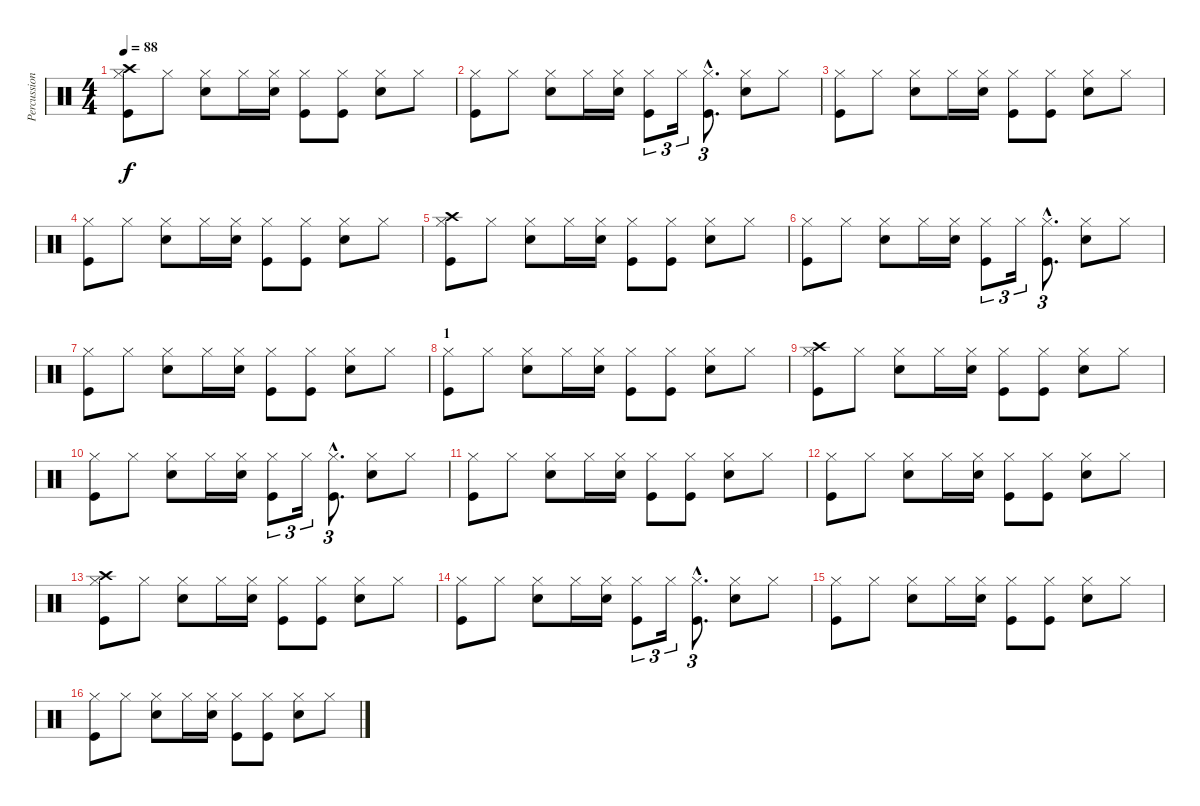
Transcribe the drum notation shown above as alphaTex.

\track ("Percussions" "Percussion") {instrument percussion}
\staff {score}
\articulation defaults
\ts (4 4)
\tempo 88
\clef neutral
\ks c
("Crash high (hit)" "Hi-Hat (closed)" "Kick (hit)").8{dy f} "Hi-Hat (closed)".8 ("Electric Snare (hit)" "Hi-Hat (closed)").8 "Hi-Hat (closed)".16 ("Electric Snare (hit)" "Hi-Hat (closed)").16 ("Hi-Hat (closed)" "Kick (hit)").8 ("Hi-Hat (closed)" "Kick (hit)").8 ("Electric Snare (hit)" "Hi-Hat (closed)").8 "Hi-Hat (closed)".8 |
("Hi-Hat (closed)" "Kick (hit)").8 "Hi-Hat (closed)".8 ("Electric Snare (hit)" "Hi-Hat (closed)").8 "Hi-Hat (closed)".16 ("Electric Snare (hit)" "Hi-Hat (closed)").16 ("Hi-Hat (closed)" "Kick (hit)").8{tu (3 2)} "Hi-Hat (closed)".16{tu (3 2)} ("Hi-Hat (closed)"{hac} "Kick (hit)"{hac}).8{d tu (3 2)} ("Electric Snare (hit)" "Hi-Hat (closed)").8 "Hi-Hat (closed)".8 |
("Hi-Hat (closed)" "Kick (hit)").8 "Hi-Hat (closed)".8 ("Electric Snare (hit)" "Hi-Hat (closed)").8 "Hi-Hat (closed)".16 ("Electric Snare (hit)" "Hi-Hat (closed)").16 ("Hi-Hat (closed)" "Kick (hit)").8 ("Hi-Hat (closed)" "Kick (hit)").8 ("Electric Snare (hit)" "Hi-Hat (closed)").8 "Hi-Hat (closed)".8 |
("Hi-Hat (closed)" "Kick (hit)").8 "Hi-Hat (closed)".8 ("Electric Snare (hit)" "Hi-Hat (closed)").8 "Hi-Hat (closed)".16 ("Electric Snare (hit)" "Hi-Hat (closed)").16 ("Hi-Hat (closed)" "Kick (hit)").8 ("Hi-Hat (closed)" "Kick (hit)").8 ("Electric Snare (hit)" "Hi-Hat (closed)").8 "Hi-Hat (closed)".8 |
("Crash high (hit)" "Hi-Hat (closed)" "Kick (hit)").8 "Hi-Hat (closed)".8 ("Electric Snare (hit)" "Hi-Hat (closed)").8 "Hi-Hat (closed)".16 ("Electric Snare (hit)" "Hi-Hat (closed)").16 ("Hi-Hat (closed)" "Kick (hit)").8 ("Hi-Hat (closed)" "Kick (hit)").8 ("Electric Snare (hit)" "Hi-Hat (closed)").8 "Hi-Hat (closed)".8 |
("Hi-Hat (closed)" "Kick (hit)").8 "Hi-Hat (closed)".8 ("Electric Snare (hit)" "Hi-Hat (closed)").8 "Hi-Hat (closed)".16 ("Electric Snare (hit)" "Hi-Hat (closed)").16 ("Hi-Hat (closed)" "Kick (hit)").8{tu (3 2)} "Hi-Hat (closed)".16{tu (3 2)} ("Hi-Hat (closed)"{hac} "Kick (hit)"{hac}).8{d tu (3 2)} ("Electric Snare (hit)" "Hi-Hat (closed)").8 "Hi-Hat (closed)".8 |
("Hi-Hat (closed)" "Kick (hit)").8 "Hi-Hat (closed)".8 ("Electric Snare (hit)" "Hi-Hat (closed)").8 "Hi-Hat (closed)".16 ("Electric Snare (hit)" "Hi-Hat (closed)").16 ("Hi-Hat (closed)" "Kick (hit)").8 ("Hi-Hat (closed)" "Kick (hit)").8 ("Electric Snare (hit)" "Hi-Hat (closed)").8 "Hi-Hat (closed)".8 |
\section ("" "1")
("Hi-Hat (closed)" "Kick (hit)").8 "Hi-Hat (closed)".8 ("Electric Snare (hit)" "Hi-Hat (closed)").8 "Hi-Hat (closed)".16 ("Electric Snare (hit)" "Hi-Hat (closed)").16 ("Hi-Hat (closed)" "Kick (hit)").8 ("Hi-Hat (closed)" "Kick (hit)").8 ("Electric Snare (hit)" "Hi-Hat (closed)").8 "Hi-Hat (closed)".8 |
("Crash high (hit)" "Hi-Hat (closed)" "Kick (hit)").8 "Hi-Hat (closed)".8 ("Electric Snare (hit)" "Hi-Hat (closed)").8 "Hi-Hat (closed)".16 ("Electric Snare (hit)" "Hi-Hat (closed)").16 ("Hi-Hat (closed)" "Kick (hit)").8 ("Hi-Hat (closed)" "Kick (hit)").8 ("Electric Snare (hit)" "Hi-Hat (closed)").8 "Hi-Hat (closed)".8 |
("Hi-Hat (closed)" "Kick (hit)").8 "Hi-Hat (closed)".8 ("Electric Snare (hit)" "Hi-Hat (closed)").8 "Hi-Hat (closed)".16 ("Electric Snare (hit)" "Hi-Hat (closed)").16 ("Hi-Hat (closed)" "Kick (hit)").8{tu (3 2)} "Hi-Hat (closed)".16{tu (3 2)} ("Hi-Hat (closed)"{hac} "Kick (hit)"{hac}).8{d tu (3 2)} ("Electric Snare (hit)" "Hi-Hat (closed)").8 "Hi-Hat (closed)".8 |
("Hi-Hat (closed)" "Kick (hit)").8 "Hi-Hat (closed)".8 ("Electric Snare (hit)" "Hi-Hat (closed)").8 "Hi-Hat (closed)".16 ("Electric Snare (hit)" "Hi-Hat (closed)").16 ("Hi-Hat (closed)" "Kick (hit)").8 ("Hi-Hat (closed)" "Kick (hit)").8 ("Electric Snare (hit)" "Hi-Hat (closed)").8 "Hi-Hat (closed)".8 |
("Hi-Hat (closed)" "Kick (hit)").8 "Hi-Hat (closed)".8 ("Electric Snare (hit)" "Hi-Hat (closed)").8 "Hi-Hat (closed)".16 ("Electric Snare (hit)" "Hi-Hat (closed)").16 ("Hi-Hat (closed)" "Kick (hit)").8 ("Hi-Hat (closed)" "Kick (hit)").8 ("Electric Snare (hit)" "Hi-Hat (closed)").8 "Hi-Hat (closed)".8 |
("Crash high (hit)" "Hi-Hat (closed)" "Kick (hit)").8 "Hi-Hat (closed)".8 ("Electric Snare (hit)" "Hi-Hat (closed)").8 "Hi-Hat (closed)".16 ("Electric Snare (hit)" "Hi-Hat (closed)").16 ("Hi-Hat (closed)" "Kick (hit)").8 ("Hi-Hat (closed)" "Kick (hit)").8 ("Electric Snare (hit)" "Hi-Hat (closed)").8 "Hi-Hat (closed)".8 |
("Hi-Hat (closed)" "Kick (hit)").8 "Hi-Hat (closed)".8 ("Electric Snare (hit)" "Hi-Hat (closed)").8 "Hi-Hat (closed)".16 ("Electric Snare (hit)" "Hi-Hat (closed)").16 ("Hi-Hat (closed)" "Kick (hit)").8{tu (3 2)} "Hi-Hat (closed)".16{tu (3 2)} ("Hi-Hat (closed)"{hac} "Kick (hit)"{hac}).8{d tu (3 2)} ("Electric Snare (hit)" "Hi-Hat (closed)").8 "Hi-Hat (closed)".8 |
("Hi-Hat (closed)" "Kick (hit)").8 "Hi-Hat (closed)".8 ("Electric Snare (hit)" "Hi-Hat (closed)").8 "Hi-Hat (closed)".16 ("Electric Snare (hit)" "Hi-Hat (closed)").16 ("Hi-Hat (closed)" "Kick (hit)").8 ("Hi-Hat (closed)" "Kick (hit)").8 ("Electric Snare (hit)" "Hi-Hat (closed)").8 "Hi-Hat (closed)".8 |
("Hi-Hat (closed)" "Kick (hit)").8 "Hi-Hat (closed)".8 ("Electric Snare (hit)" "Hi-Hat (closed)").8 "Hi-Hat (closed)".16 ("Electric Snare (hit)" "Hi-Hat (closed)").16 ("Hi-Hat (closed)" "Kick (hit)").8 ("Hi-Hat (closed)" "Kick (hit)").8 ("Electric Snare (hit)" "Hi-Hat (closed)").8 "Hi-Hat (closed)".8
